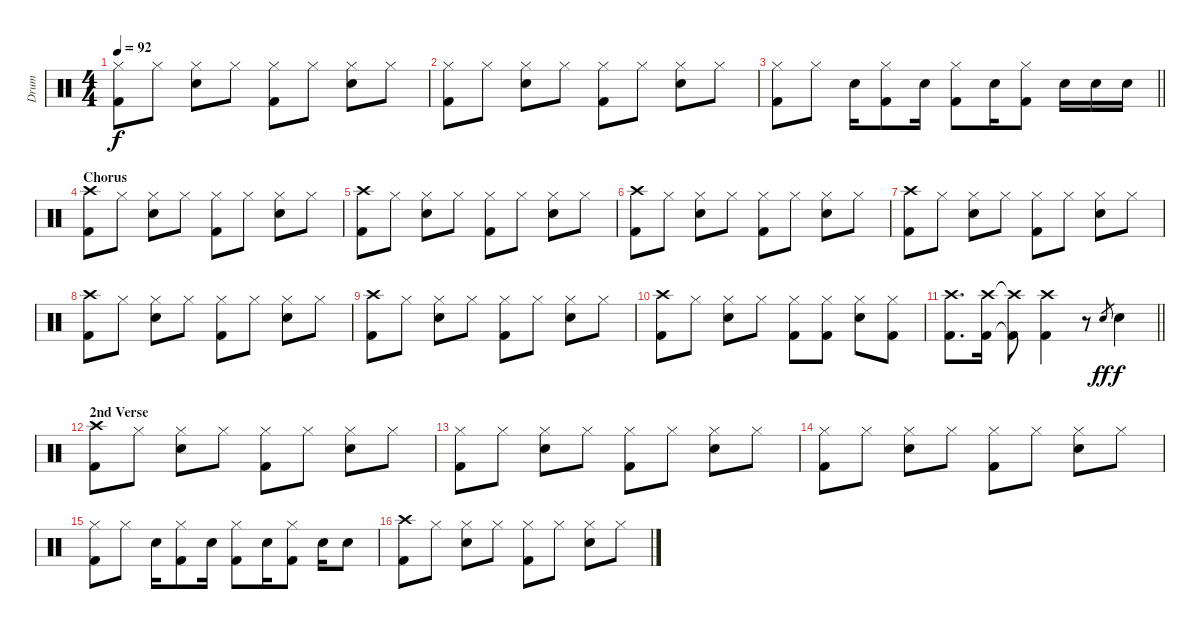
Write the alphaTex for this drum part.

\track ("Drum" "Drum") {instrument percussion}
\staff {score}
\articulation defaults
\ts (4 4)
\tempo 92
\clef neutral
\ks c
("Hi-Hat (closed)" "Kick (hit) 2").8{dy f} "Hi-Hat (closed)".8 ("Hi-Hat (closed)" "Snare (hit) 2").8 "Hi-Hat (closed)".8 ("Hi-Hat (closed)" "Kick (hit) 2").8 "Hi-Hat (closed)".8 ("Hi-Hat (closed)" "Snare (hit) 2").8 "Hi-Hat (closed)".8 |
("Hi-Hat (closed)" "Kick (hit) 2").8 "Hi-Hat (closed)".8 ("Hi-Hat (closed)" "Snare (hit) 2").8 "Hi-Hat (closed)".8 ("Hi-Hat (closed)" "Kick (hit) 2").8 "Hi-Hat (closed)".8 ("Hi-Hat (closed)" "Snare (hit) 2").8 "Hi-Hat (closed)".8 |
\barLineRight lightlight
("Hi-Hat (closed)" "Kick (hit) 2").8 "Hi-Hat (closed)".8 "Snare (hit) 2".16 ("Hi-Hat (closed)" "Kick (hit) 2").8 "Snare (hit) 2".16 ("Hi-Hat (closed)" "Kick (hit) 2").8 "Snare (hit) 2".16 ("Hi-Hat (closed)" "Kick (hit) 2").8 "Snare (hit) 2".16 "Snare (hit) 2".16 "Snare (hit) 2".16 |
\section ("" "Chorus")
("Crash high (hit)" "Kick (hit) 2").8 "Hi-Hat (closed)".8 ("Hi-Hat (closed)" "Snare (hit) 2").8 "Hi-Hat (closed)".8 ("Hi-Hat (closed)" "Kick (hit) 2").8 "Hi-Hat (closed)".8 ("Hi-Hat (closed)" "Snare (hit) 2").8 "Hi-Hat (closed)".8 |
("Crash high (hit)" "Kick (hit) 2").8 "Hi-Hat (closed)".8 ("Hi-Hat (closed)" "Snare (hit) 2").8 "Hi-Hat (closed)".8 ("Hi-Hat (closed)" "Kick (hit) 2").8 "Hi-Hat (closed)".8 ("Hi-Hat (closed)" "Snare (hit) 2").8 "Hi-Hat (closed)".8 |
("Crash high (hit)" "Kick (hit) 2").8 "Hi-Hat (closed)".8 ("Hi-Hat (closed)" "Snare (hit) 2").8 "Hi-Hat (closed)".8 ("Hi-Hat (closed)" "Kick (hit) 2").8 "Hi-Hat (closed)".8 ("Hi-Hat (closed)" "Snare (hit) 2").8 "Hi-Hat (closed)".8 |
("Crash high (hit)" "Kick (hit) 2").8 "Hi-Hat (closed)".8 ("Hi-Hat (closed)" "Snare (hit) 2").8 "Hi-Hat (closed)".8 ("Hi-Hat (closed)" "Kick (hit) 2").8 "Hi-Hat (closed)".8 ("Hi-Hat (closed)" "Snare (hit) 2").8 "Hi-Hat (closed)".8 |
("Crash high (hit)" "Kick (hit) 2").8 "Hi-Hat (closed)".8 ("Hi-Hat (closed)" "Snare (hit) 2").8 "Hi-Hat (closed)".8 ("Hi-Hat (closed)" "Kick (hit) 2").8 "Hi-Hat (closed)".8 ("Hi-Hat (closed)" "Snare (hit) 2").8 "Hi-Hat (closed)".8 |
("Crash high (hit)" "Kick (hit) 2").8 "Hi-Hat (closed)".8 ("Hi-Hat (closed)" "Snare (hit) 2").8 "Hi-Hat (closed)".8 ("Hi-Hat (closed)" "Kick (hit) 2").8 "Hi-Hat (closed)".8 ("Hi-Hat (closed)" "Snare (hit) 2").8 "Hi-Hat (closed)".8 |
("Crash high (hit)" "Kick (hit) 2").8 "Hi-Hat (closed)".8 ("Hi-Hat (closed)" "Snare (hit) 2").8 "Hi-Hat (closed)".8 ("Hi-Hat (closed)" "Kick (hit) 2").8 ("Hi-Hat (closed)" "Kick (hit) 2").8 ("Hi-Hat (closed)" "Snare (hit) 2").8 ("Hi-Hat (closed)" "Kick (hit) 2").8 |
\barLineRight lightlight
("Crash high (hit)" "Kick (hit) 2").8{d} ("Crash high (hit)" "Kick (hit) 2").16 ("Crash high (hit)"{t} "Kick (hit) 2"{t}).8 ("Crash high (hit)" "Kick (hit) 2").4 r.8 "Snare (hit) 2".8{gr dy ff} "Snare (hit) 2".4{dy f} |
\section ("" "2nd Verse")
("Crash high (hit)" "Kick (hit) 2").8 "Hi-Hat (closed)".8 ("Hi-Hat (closed)" "Snare (hit) 2").8 "Hi-Hat (closed)".8 ("Hi-Hat (closed)" "Kick (hit) 2").8 "Hi-Hat (closed)".8 ("Hi-Hat (closed)" "Snare (hit) 2").8 "Hi-Hat (closed)".8 |
("Hi-Hat (closed)" "Kick (hit) 2").8 "Hi-Hat (closed)".8 ("Hi-Hat (closed)" "Snare (hit) 2").8 "Hi-Hat (closed)".8 ("Hi-Hat (closed)" "Kick (hit) 2").8 "Hi-Hat (closed)".8 ("Hi-Hat (closed)" "Snare (hit) 2").8 "Hi-Hat (closed)".8 |
("Hi-Hat (closed)" "Kick (hit) 2").8 "Hi-Hat (closed)".8 ("Hi-Hat (closed)" "Snare (hit) 2").8 "Hi-Hat (closed)".8 ("Hi-Hat (closed)" "Kick (hit) 2").8 "Hi-Hat (closed)".8 ("Hi-Hat (closed)" "Snare (hit) 2").8 "Hi-Hat (closed)".8 |
("Hi-Hat (closed)" "Kick (hit) 2").8 "Hi-Hat (closed)".8 "Snare (hit) 2".16 ("Hi-Hat (closed)" "Kick (hit) 2").8 "Snare (hit) 2".16 ("Hi-Hat (closed)" "Kick (hit) 2").8 "Snare (hit) 2".16 ("Hi-Hat (closed)" "Kick (hit) 2").8 "Snare (hit) 2".16 "Snare (hit) 2".8 |
("Crash high (hit)" "Kick (hit) 2").8 "Hi-Hat (closed)".8 ("Hi-Hat (closed)" "Snare (hit) 2").8 "Hi-Hat (closed)".8 ("Hi-Hat (closed)" "Kick (hit) 2").8 "Hi-Hat (closed)".8 ("Hi-Hat (closed)" "Snare (hit) 2").8 "Hi-Hat (closed)".8
